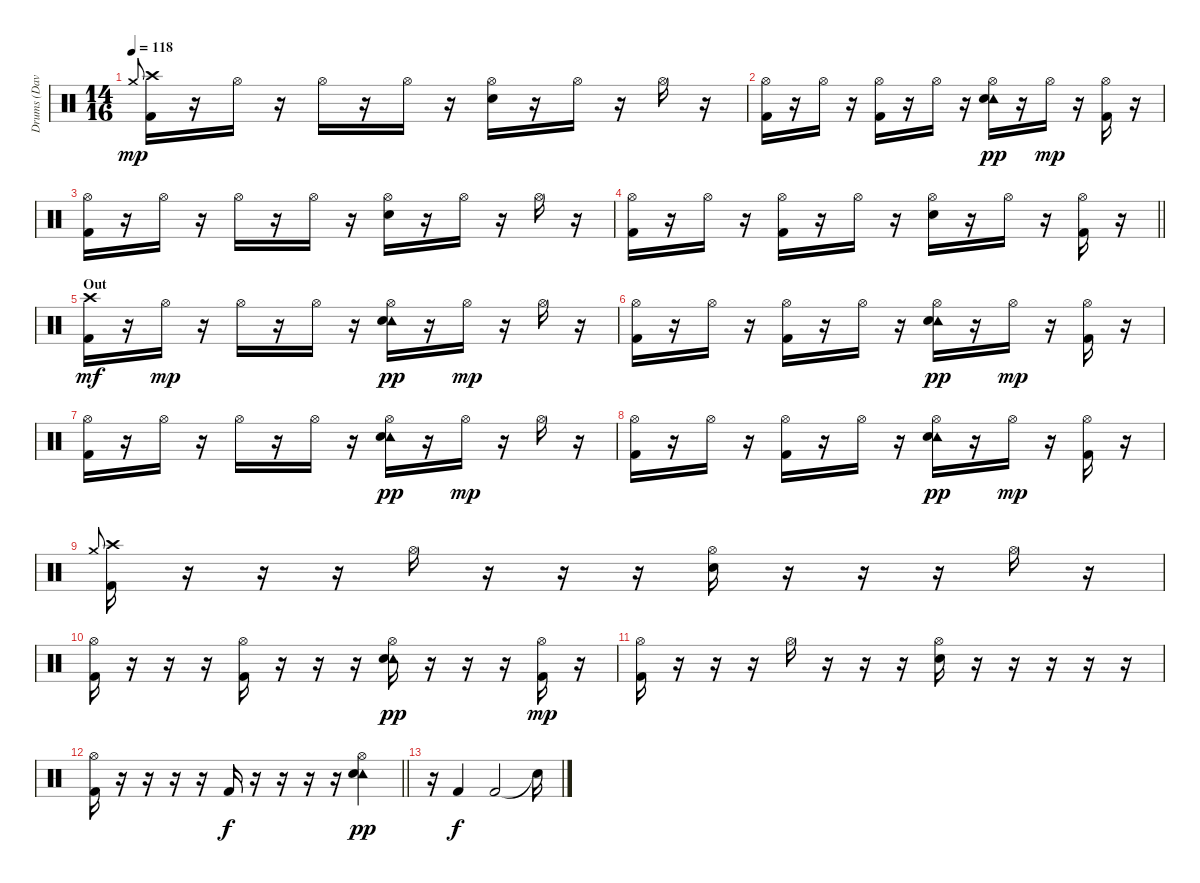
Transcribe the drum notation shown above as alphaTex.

\track ("Drums (Dave Turncrantz)" "Drums (Dav") {instrument percussion}
\staff {score}
\articulation defaults
\ts (14 16)
\tempo 118
\clef neutral
\ks c "Crash medium (hit)".8{gr onbeat dy mp}
("Crash high (hit)" "Kick (hit) 2").16 r.16 "Hi-Hat (open)".16 r.16 "Hi-Hat (open)".16 r.16 "Hi-Hat (open)".16 r.16 ("Hi-Hat (open)" "Snare (hit) 2").16 r.16 "Hi-Hat (open)".16 r.16 "Hi-Hat (open)".16 r.16 |
("Hi-Hat (open)" "Kick (hit) 2").16 r.16 "Hi-Hat (open)".16 r.16 ("Hi-Hat (open)" "Kick (hit) 2").16 r.16 "Hi-Hat (open)".16 r.16 ("Hi-Hat (open)" "Tambourine (hit)" "Snare (hit) 2").16{dy pp} r.16 "Hi-Hat (open)".16{dy mp} r.16 ("Hi-Hat (open)" "Kick (hit) 2").16 r.16 |
("Hi-Hat (open)" "Kick (hit) 2").16 r.16 "Hi-Hat (open)".16 r.16 "Hi-Hat (open)".16 r.16 "Hi-Hat (open)".16 r.16 ("Hi-Hat (open)" "Snare (hit) 2").16 r.16 "Hi-Hat (open)".16 r.16 "Hi-Hat (open)".16 r.16 |
\barLineRight lightlight
("Hi-Hat (open)" "Kick (hit) 2").16 r.16 "Hi-Hat (open)".16 r.16 ("Hi-Hat (open)" "Kick (hit) 2").16 r.16 "Hi-Hat (open)".16 r.16 ("Hi-Hat (open)" "Snare (hit) 2").16 r.16 "Hi-Hat (open)".16 r.16 ("Hi-Hat (open)" "Kick (hit) 2").16 r.16 |
\section ("" "Out")
("Crash high (hit)" "Kick (hit) 2").16{dy mf} r.16 "Hi-Hat (open)".16{dy mp} r.16 "Hi-Hat (open)".16 r.16 "Hi-Hat (open)".16 r.16 ("Hi-Hat (open)" "Tambourine (hit)" "Snare (hit) 2").16{dy pp} r.16 "Hi-Hat (open)".16{dy mp} r.16 "Hi-Hat (open)".16 r.16 |
("Hi-Hat (open)" "Kick (hit) 2").16 r.16 "Hi-Hat (open)".16 r.16 ("Hi-Hat (open)" "Kick (hit) 2").16 r.16 "Hi-Hat (open)".16 r.16 ("Hi-Hat (open)" "Tambourine (hit)" "Snare (hit) 2").16{dy pp} r.16 "Hi-Hat (open)".16{dy mp} r.16 ("Hi-Hat (open)" "Kick (hit) 2").16 r.16 |
("Hi-Hat (open)" "Kick (hit) 2").16 r.16 "Hi-Hat (open)".16 r.16 "Hi-Hat (open)".16 r.16 "Hi-Hat (open)".16 r.16 ("Hi-Hat (open)" "Tambourine (hit)" "Snare (hit) 2").16{dy pp} r.16 "Hi-Hat (open)".16{dy mp} r.16 "Hi-Hat (open)".16 r.16 |
("Hi-Hat (open)" "Kick (hit) 2").16 r.16 "Hi-Hat (open)".16 r.16 ("Hi-Hat (open)" "Kick (hit) 2").16 r.16 "Hi-Hat (open)".16 r.16 ("Hi-Hat (open)" "Tambourine (hit)" "Snare (hit) 2").16{dy pp} r.16 "Hi-Hat (open)".16{dy mp} r.16 ("Hi-Hat (open)" "Kick (hit) 2").16 r.16 |
"Crash medium (hit)".8{gr onbeat} ("Crash high (hit)" "Kick (hit) 2").16 r.16 r.16 r.16 "Hi-Hat (open)".16 r.16 r.16 r.16 ("Hi-Hat (open)" "Snare (hit) 2").16 r.16 r.16 r.16 "Hi-Hat (open)".16 r.16 |
("Hi-Hat (open)" "Kick (hit) 2").16 r.16 r.16 r.16 ("Hi-Hat (open)" "Kick (hit) 2").16 r.16 r.16 r.16 ("Hi-Hat (open)" "Tambourine (hit)" "Snare (hit) 2").16{dy pp} r.16 r.16 r.16 ("Hi-Hat (open)" "Kick (hit) 2").16{dy mp} r.16 |
("Hi-Hat (open)" "Kick (hit) 2").16 r.16 r.16 r.16 "Hi-Hat (open)".16 r.16 r.16 r.16 ("Hi-Hat (open)" "Snare (hit) 2").16 r.16 r.16 r.16 r.16 r.16 |
\barLineRight lightlight
("Hi-Hat (open)" "Kick (hit) 2").16 r.16 r.16 r.16 r.16 "Kick (hit) 2".16{dy f} r.16 r.16 r.16 r.16 ("Hi-Hat (open)" "Tambourine (hit)" "Snare (hit) 2").4{dy pp} |
r.16 "Kick (hit) 2".4{dy f} "Kick (hit) 2".2 "Snare (hit)"{t}.16
